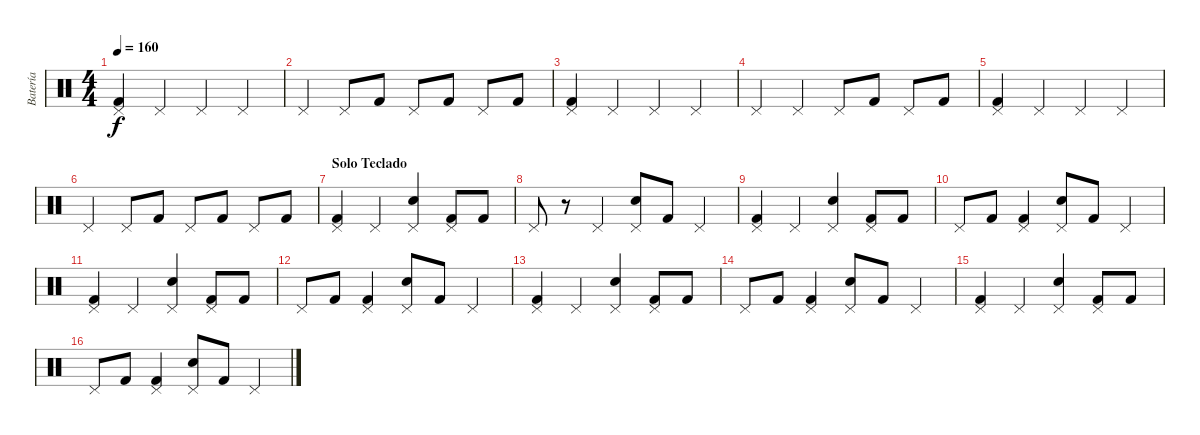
\track ("Batería" "Batería") {instrument percussion}
\staff {score}
\articulation defaults
\ts (4 4)
\tempo 160
\clef neutral
\ks c
("Kick (hit) 2" "Pedal Hi-Hat (hit)").4{dy f} "Pedal Hi-Hat (hit)".4 "Pedal Hi-Hat (hit)".4 "Pedal Hi-Hat (hit)".4 |
"Pedal Hi-Hat (hit)".4 "Pedal Hi-Hat (hit)".8 "Kick (hit) 2".8 "Pedal Hi-Hat (hit)".8 "Kick (hit) 2".8 "Pedal Hi-Hat (hit)".8 "Kick (hit) 2".8 |
("Kick (hit) 2" "Pedal Hi-Hat (hit)").4 "Pedal Hi-Hat (hit)".4 "Pedal Hi-Hat (hit)".4 "Pedal Hi-Hat (hit)".4 |
"Pedal Hi-Hat (hit)".4 "Pedal Hi-Hat (hit)".4 "Pedal Hi-Hat (hit)".8 "Kick (hit) 2".8 "Pedal Hi-Hat (hit)".8 "Kick (hit) 2".8 |
("Kick (hit) 2" "Pedal Hi-Hat (hit)").4 "Pedal Hi-Hat (hit)".4 "Pedal Hi-Hat (hit)".4 "Pedal Hi-Hat (hit)".4 |
"Pedal Hi-Hat (hit)".4 "Pedal Hi-Hat (hit)".8 "Kick (hit) 2".8 "Pedal Hi-Hat (hit)".8 "Kick (hit) 2".8 "Pedal Hi-Hat (hit)".8 "Kick (hit) 2".8 |
\section ("" "Solo Teclado")
("Kick (hit) 2" "Pedal Hi-Hat (hit)").4 "Pedal Hi-Hat (hit)".4 ("Electric Snare (hit)" "Pedal Hi-Hat (hit)").4 ("Kick (hit) 2" "Pedal Hi-Hat (hit)").8 "Kick (hit) 2".8 |
"Pedal Hi-Hat (hit)".8 r.8 "Pedal Hi-Hat (hit)".4 ("Electric Snare (hit)" "Pedal Hi-Hat (hit)").8 "Kick (hit) 2".8 "Pedal Hi-Hat (hit)".4 |
("Kick (hit) 2" "Pedal Hi-Hat (hit)").4 "Pedal Hi-Hat (hit)".4 ("Electric Snare (hit)" "Pedal Hi-Hat (hit)").4 ("Kick (hit) 2" "Pedal Hi-Hat (hit)").8 "Kick (hit) 2".8 |
"Pedal Hi-Hat (hit)".8 "Kick (hit) 2".8 ("Kick (hit) 2" "Pedal Hi-Hat (hit)").4 ("Electric Snare (hit)" "Pedal Hi-Hat (hit)").8 "Kick (hit) 2".8 "Pedal Hi-Hat (hit)".4 |
("Kick (hit) 2" "Pedal Hi-Hat (hit)").4 "Pedal Hi-Hat (hit)".4 ("Electric Snare (hit)" "Pedal Hi-Hat (hit)").4 ("Kick (hit) 2" "Pedal Hi-Hat (hit)").8 "Kick (hit) 2".8 |
"Pedal Hi-Hat (hit)".8 "Kick (hit) 2".8 ("Kick (hit) 2" "Pedal Hi-Hat (hit)").4 ("Electric Snare (hit)" "Pedal Hi-Hat (hit)").8 "Kick (hit) 2".8 "Pedal Hi-Hat (hit)".4 |
("Kick (hit) 2" "Pedal Hi-Hat (hit)").4 "Pedal Hi-Hat (hit)".4 ("Electric Snare (hit)" "Pedal Hi-Hat (hit)").4 ("Kick (hit) 2" "Pedal Hi-Hat (hit)").8 "Kick (hit) 2".8 |
"Pedal Hi-Hat (hit)".8 "Kick (hit) 2".8 ("Kick (hit) 2" "Pedal Hi-Hat (hit)").4 ("Electric Snare (hit)" "Pedal Hi-Hat (hit)").8 "Kick (hit) 2".8 "Pedal Hi-Hat (hit)".4 |
("Kick (hit) 2" "Pedal Hi-Hat (hit)").4 "Pedal Hi-Hat (hit)".4 ("Electric Snare (hit)" "Pedal Hi-Hat (hit)").4 ("Kick (hit) 2" "Pedal Hi-Hat (hit)").8 "Kick (hit) 2".8 |
"Pedal Hi-Hat (hit)".8 "Kick (hit) 2".8 ("Kick (hit) 2" "Pedal Hi-Hat (hit)").4 ("Electric Snare (hit)" "Pedal Hi-Hat (hit)").8 "Kick (hit) 2".8 "Pedal Hi-Hat (hit)".4
